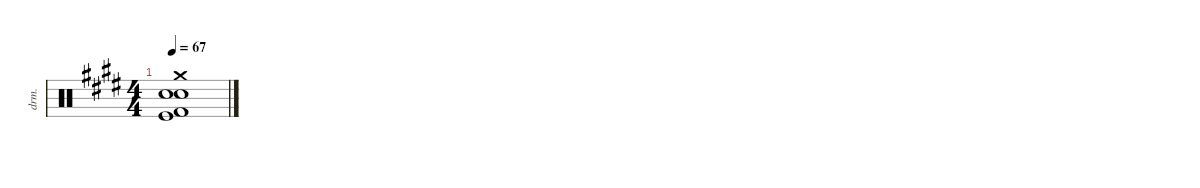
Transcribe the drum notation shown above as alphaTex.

\defaultSystemsLayout 4
\hideDynamics
\bracketExtendMode groupsimilarinstruments
\otherSystemsTrackNameOrientation horizontal
\track ("Drums" "drm.") {defaultSystemsLayout 4 instrument percussion}
\staff {score}
\articulation defaults
\ts (4 4)
\tempo 67
\clef neutral
\ks c#minor
("Kick (hit)"{acc forcenatural} "Kick (hit) 2"{acc forcenatural} "Snare (hit) 2"{acc forcenatural} "Snare (hit) 2"{acc forcenatural} "Crash medium (hit)"{acc forcenatural}).1{dy f beam Down}
